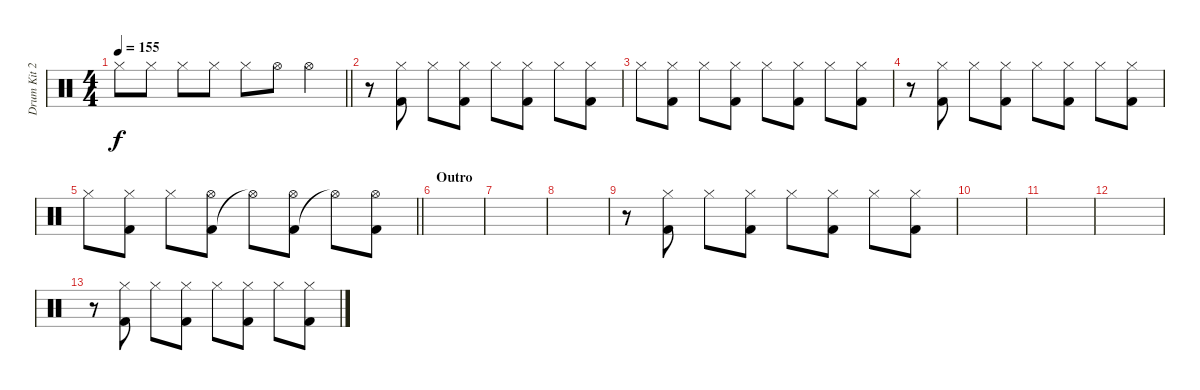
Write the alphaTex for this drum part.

\track ("Drum Kit 2" "Drum Kit 2") {instrument percussion}
\staff {score}
\articulation defaults
\ts (4 4)
\tempo 155
\clef neutral
\barLineRight lightlight
\ks c "Hi-Hat (closed)".8{dy f} "Hi-Hat (closed)".8 "Hi-Hat (closed)".8 "Hi-Hat (closed)".8 "Hi-Hat (closed)".8 "Hi-Hat (open)".8 "Hi-Hat (open)".4
|
r.8 ("Kick (hit) 2" "Hi-Hat (closed)").8 "Hi-Hat (closed)".8 ("Kick (hit) 2" "Hi-Hat (closed)").8 "Hi-Hat (closed)".8 ("Kick (hit) 2" "Hi-Hat (closed)").8 "Hi-Hat (closed)".8 ("Kick (hit) 2" "Hi-Hat (closed)").8 |
"Hi-Hat (closed)".8 ("Kick (hit) 2" "Hi-Hat (closed)").8 "Hi-Hat (closed)".8 ("Kick (hit) 2" "Hi-Hat (closed)").8 "Hi-Hat (closed)".8 ("Kick (hit) 2" "Hi-Hat (closed)").8 "Hi-Hat (closed)".8 ("Kick (hit) 2" "Hi-Hat (closed)").8 |
r.8 ("Kick (hit) 2" "Hi-Hat (closed)").8 "Hi-Hat (closed)".8 ("Kick (hit) 2" "Hi-Hat (closed)").8 "Hi-Hat (closed)".8 ("Kick (hit) 2" "Hi-Hat (closed)").8 "Hi-Hat (closed)".8 ("Kick (hit) 2" "Hi-Hat (closed)").8 |
\barLineRight lightlight "Hi-Hat (closed)".8
("Kick (hit) 2" "Hi-Hat (closed)").8 "Hi-Hat (closed)".8 ("Kick (hit) 2" "Hi-Hat (open)").8 "Hi-Hat (open)"{t}.8 ("Kick (hit) 2" "Hi-Hat (open)").8 "Hi-Hat (open)"{t}.8 ("Kick (hit) 2" "Hi-Hat (open)").8 |
\section ("" "Outro")
|
|
|
r.8 ("Kick (hit) 2" "Hi-Hat (closed)").8 "Hi-Hat (closed)".8 ("Kick (hit) 2" "Hi-Hat (closed)").8 "Hi-Hat (closed)".8 ("Kick (hit) 2" "Hi-Hat (closed)").8 "Hi-Hat (closed)".8 ("Kick (hit) 2" "Hi-Hat (closed)").8 |
|
|
|
r.8 ("Kick (hit) 2" "Hi-Hat (closed)").8 "Hi-Hat (closed)".8 ("Kick (hit) 2" "Hi-Hat (closed)").8 "Hi-Hat (closed)".8 ("Kick (hit) 2" "Hi-Hat (closed)").8 "Hi-Hat (closed)".8 ("Kick (hit) 2" "Hi-Hat (closed)").8
